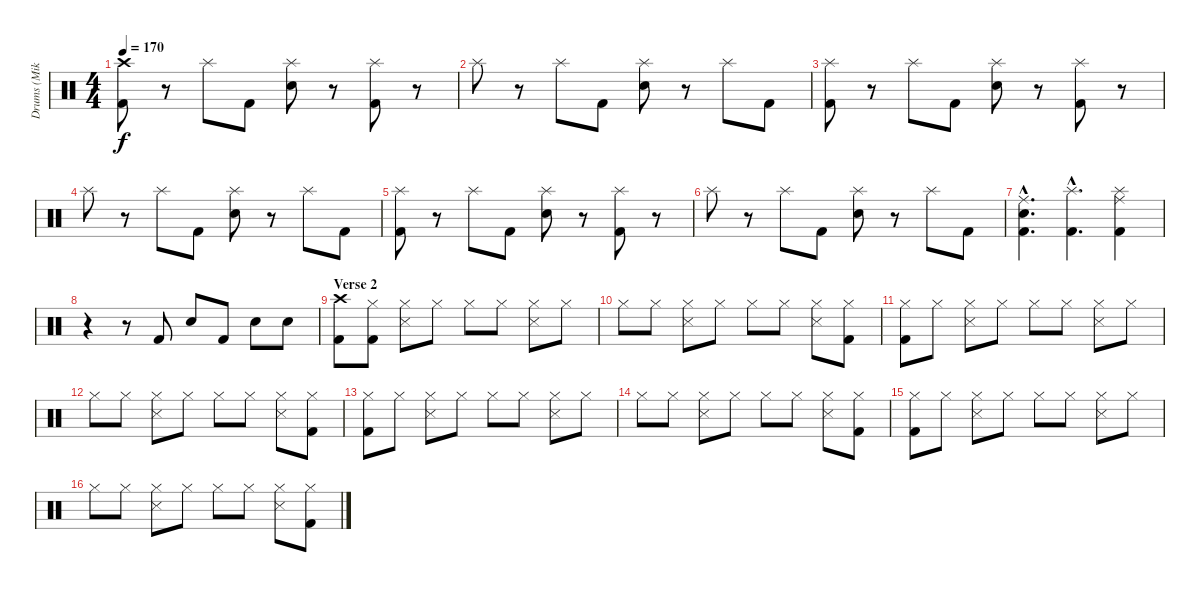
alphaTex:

\track ("Drums (Mike C)" "Drums (Mik") {instrument percussion}
\staff {score}
\articulation defaults
\ts (4 4)
\tempo 170
\clef neutral
\ks c
("Crash high (hit)" "Kick (hit) 2").8{dy f} r.8 "Splash (hit)".8 "Kick (hit) 2".8 ("Splash (hit)" "Snare (hit) 2").8 r.8 ("Splash (hit)" "Kick (hit) 2").8 r.8 |
"Splash (hit)".8 r.8 "Splash (hit)".8 "Kick (hit) 2".8 ("Splash (hit)" "Snare (hit) 2").8 r.8 "Splash (hit)".8 "Kick (hit) 2".8 |
("Splash (hit)" "Kick (hit) 2").8 r.8 "Splash (hit)".8 "Kick (hit) 2".8 ("Splash (hit)" "Snare (hit) 2").8 r.8 ("Splash (hit)" "Kick (hit) 2").8 r.8 |
"Splash (hit)".8 r.8 "Splash (hit)".8 "Kick (hit) 2".8 ("Splash (hit)" "Snare (hit) 2").8 r.8 "Splash (hit)".8 "Kick (hit) 2".8 |
("Splash (hit)" "Kick (hit) 2").8 r.8 "Splash (hit)".8 "Kick (hit) 2".8 ("Splash (hit)" "Snare (hit) 2").8 r.8 ("Splash (hit)" "Kick (hit) 2").8 r.8 |
"Splash (hit)".8 r.8 "Splash (hit)".8 "Kick (hit) 2".8 ("Splash (hit)" "Snare (hit) 2").8 r.8 "Splash (hit)".8 "Kick (hit) 2".8 |
("Ride (middle)"{hac} "Snare (hit)"{hac} "Kick (hit) 2"{hac}).4{d} ("Splash (hit)"{hac} "Kick (hit) 2"{hac}).4{d} ("Ride (middle)" "Splash (hit)" "Kick (hit) 2").4 |
r.4 r.8 "Kick (hit) 2".8 "Snare (hit) 2".8 "Kick (hit) 2".8 "Snare (hit) 2".8 "Snare (hit) 2".8 |
\section ("" "Verse 2")
("Crash high (hit)" "Kick (hit) 2").8 ("Hi-Hat (closed)" "Kick (hit) 2").8 ("Hi-Hat (closed)" "Snare (side stick) 3").8 "Hi-Hat (closed)".8 "Hi-Hat (closed)".8 "Hi-Hat (closed)".8 ("Hi-Hat (closed)" "Snare (side stick) 3").8 "Hi-Hat (closed)".8 |
"Hi-Hat (closed)".8 "Hi-Hat (closed)".8 ("Hi-Hat (closed)" "Snare (side stick) 3").8 "Hi-Hat (closed)".8 "Hi-Hat (closed)".8 "Hi-Hat (closed)".8 ("Hi-Hat (closed)" "Snare (side stick) 3").8 ("Hi-Hat (closed)" "Kick (hit) 2").8 |
("Hi-Hat (closed)" "Kick (hit) 2").8 "Hi-Hat (closed)".8 ("Hi-Hat (closed)" "Snare (side stick) 3").8 "Hi-Hat (closed)".8 "Hi-Hat (closed)".8 "Hi-Hat (closed)".8 ("Hi-Hat (closed)" "Snare (side stick) 3").8 "Hi-Hat (closed)".8 |
"Hi-Hat (closed)".8 "Hi-Hat (closed)".8 ("Hi-Hat (closed)" "Snare (side stick) 3").8 "Hi-Hat (closed)".8 "Hi-Hat (closed)".8 "Hi-Hat (closed)".8 ("Hi-Hat (closed)" "Snare (side stick) 3").8 ("Hi-Hat (closed)" "Kick (hit) 2").8 |
("Hi-Hat (closed)" "Kick (hit) 2").8 "Hi-Hat (closed)".8 ("Hi-Hat (closed)" "Snare (side stick) 3").8 "Hi-Hat (closed)".8 "Hi-Hat (closed)".8 "Hi-Hat (closed)".8 ("Hi-Hat (closed)" "Snare (side stick) 3").8 "Hi-Hat (closed)".8 |
"Hi-Hat (closed)".8 "Hi-Hat (closed)".8 ("Hi-Hat (closed)" "Snare (side stick) 3").8 "Hi-Hat (closed)".8 "Hi-Hat (closed)".8 "Hi-Hat (closed)".8 ("Hi-Hat (closed)" "Snare (side stick) 3").8 ("Hi-Hat (closed)" "Kick (hit) 2").8 |
("Hi-Hat (closed)" "Kick (hit) 2").8 "Hi-Hat (closed)".8 ("Hi-Hat (closed)" "Snare (side stick) 3").8 "Hi-Hat (closed)".8 "Hi-Hat (closed)".8 "Hi-Hat (closed)".8 ("Hi-Hat (closed)" "Snare (side stick) 3").8 "Hi-Hat (closed)".8 |
"Hi-Hat (closed)".8 "Hi-Hat (closed)".8 ("Hi-Hat (closed)" "Snare (side stick) 3").8 "Hi-Hat (closed)".8 "Hi-Hat (closed)".8 "Hi-Hat (closed)".8 ("Hi-Hat (closed)" "Snare (side stick) 3").8 ("Hi-Hat (closed)" "Kick (hit) 2").8
